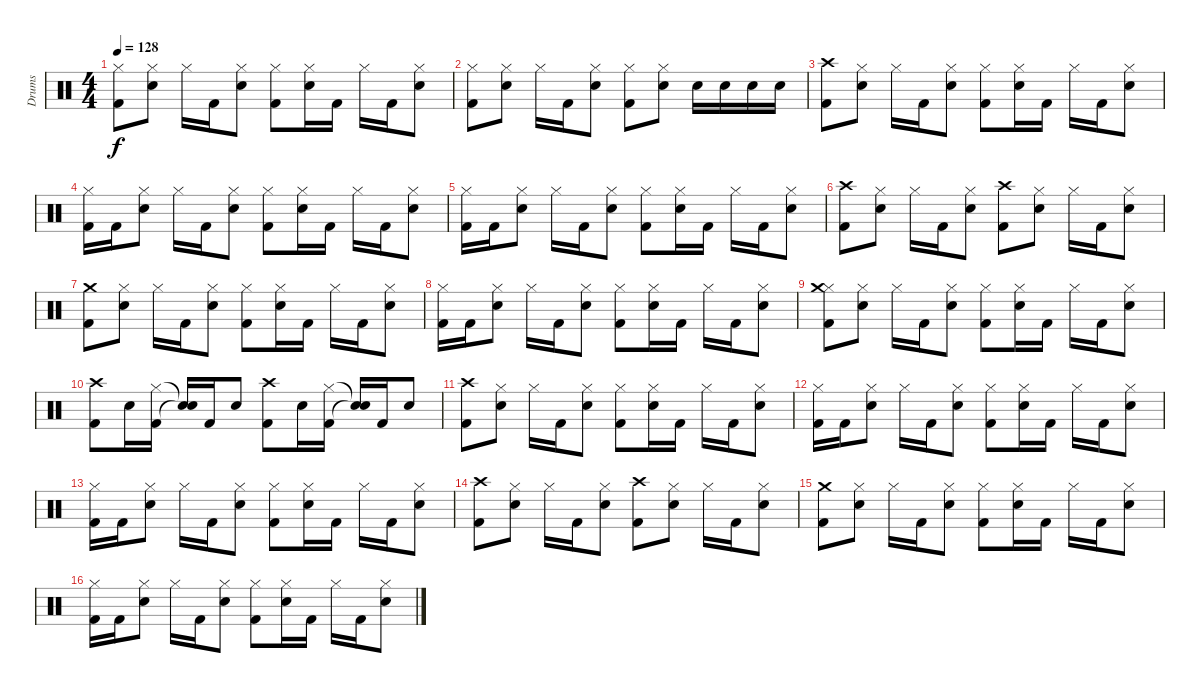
\track ("Drums" "Drums") {instrument percussion}
\staff {score}
\articulation defaults
\ts (4 4)
\tempo 128
\clef neutral
\ks c
("Kick (hit) 2" "Hi-Hat (closed)").8{dy f} ("Snare (hit) 2" "Hi-Hat (closed)").8 "Hi-Hat (closed)".16 "Kick (hit) 2".16 ("Snare (hit) 2" "Hi-Hat (closed)").8 ("Kick (hit) 2" "Hi-Hat (closed)").8 ("Snare (hit) 2" "Hi-Hat (closed)").16 "Kick (hit) 2".16 "Hi-Hat (closed)".16 "Kick (hit) 2".16 ("Snare (hit) 2" "Hi-Hat (closed)").8 |
("Kick (hit) 2" "Hi-Hat (closed)").8 ("Snare (hit) 2" "Hi-Hat (closed)").8 "Hi-Hat (closed)".16 "Kick (hit) 2".16 ("Snare (hit) 2" "Hi-Hat (closed)").8 ("Kick (hit) 2" "Hi-Hat (closed)").8 ("Snare (hit) 2" "Hi-Hat (closed)").8 "Snare (hit) 2".16 "Snare (hit) 2".16 "Snare (hit) 2".16 "Snare (hit) 2".16 |
("Kick (hit) 2" "Crash high (hit)").8 ("Snare (hit) 2" "Hi-Hat (closed)").8 "Hi-Hat (closed)".16 "Kick (hit) 2".16 ("Snare (hit) 2" "Hi-Hat (closed)").8 ("Kick (hit) 2" "Hi-Hat (closed)").8 ("Snare (hit) 2" "Hi-Hat (closed)").16 "Kick (hit) 2".16 "Hi-Hat (closed)".16 "Kick (hit) 2".16 ("Snare (hit) 2" "Hi-Hat (closed)").8 |
("Kick (hit) 2" "Hi-Hat (closed)").16 "Kick (hit) 2".16 ("Snare (hit) 2" "Hi-Hat (closed)").8 "Hi-Hat (closed)".16 "Kick (hit) 2".16 ("Snare (hit) 2" "Hi-Hat (closed)").8 ("Kick (hit) 2" "Hi-Hat (closed)").8 ("Snare (hit) 2" "Hi-Hat (closed)").16 "Kick (hit) 2".16 "Hi-Hat (closed)".16 "Kick (hit) 2".16 ("Snare (hit) 2" "Hi-Hat (closed)").8 |
("Kick (hit) 2" "Hi-Hat (closed)").16 "Kick (hit) 2".16 ("Snare (hit) 2" "Hi-Hat (closed)").8 "Hi-Hat (closed)".16 "Kick (hit) 2".16 ("Snare (hit) 2" "Hi-Hat (closed)").8 ("Kick (hit) 2" "Hi-Hat (closed)").8 ("Snare (hit) 2" "Hi-Hat (closed)").16 "Kick (hit) 2".16 "Hi-Hat (closed)".16 "Kick (hit) 2".16 ("Snare (hit) 2" "Hi-Hat (closed)").8 |
("Kick (hit) 2" "Crash high (hit)").8 ("Snare (hit) 2" "Hi-Hat (closed)").8 "Hi-Hat (closed)".16 "Kick (hit) 2".16 ("Snare (hit) 2" "Hi-Hat (closed)").8 ("Kick (hit) 2" "Crash high (hit)").8 ("Snare (hit) 2" "Hi-Hat (closed)").8 "Hi-Hat (closed)".16 "Kick (hit) 2".16 ("Snare (hit) 2" "Hi-Hat (closed)").8 |
("Kick (hit) 2" "Crash medium (hit)").8 ("Snare (hit) 2" "Hi-Hat (closed)").8 "Hi-Hat (closed)".16 "Kick (hit) 2".16 ("Snare (hit) 2" "Hi-Hat (closed)").8 ("Kick (hit) 2" "Hi-Hat (closed)").8 ("Snare (hit) 2" "Hi-Hat (closed)").16 "Kick (hit) 2".16 "Hi-Hat (closed)".16 "Kick (hit) 2".16 ("Snare (hit) 2" "Hi-Hat (closed)").8 |
("Kick (hit) 2" "Hi-Hat (closed)").16 "Kick (hit) 2".16 ("Snare (hit) 2" "Hi-Hat (closed)").8 "Hi-Hat (closed)".16 "Kick (hit) 2".16 ("Snare (hit) 2" "Hi-Hat (closed)").8 ("Kick (hit) 2" "Hi-Hat (closed)").8 ("Snare (hit) 2" "Hi-Hat (closed)").16 "Kick (hit) 2".16 "Hi-Hat (closed)".16 "Kick (hit) 2".16 ("Snare (hit) 2" "Hi-Hat (closed)").8 |
("Kick (hit) 2" "Hi-Hat (closed)" "Crash medium (hit)").8 ("Snare (hit) 2" "Hi-Hat (closed)").8 "Hi-Hat (closed)".16 "Kick (hit) 2".16 ("Snare (hit) 2" "Hi-Hat (closed)").8 ("Kick (hit) 2" "Hi-Hat (closed)").8 ("Snare (hit) 2" "Hi-Hat (closed)").16 "Kick (hit) 2".16 "Hi-Hat (closed)".16 "Kick (hit) 2".16 ("Snare (hit) 2" "Hi-Hat (closed)").8 |
("Kick (hit) 2" "Crash high (hit)").8 "Snare (hit) 2".16 ("Kick (hit) 2" "Hi-Hat (closed)").16 ("Snare (hit)"{t} "Snare (hit)"{t}).16 "Kick (hit) 2".16 "Snare (hit) 2".8 ("Kick (hit) 2" "Crash high (hit)").8 "Snare (hit) 2".16 ("Kick (hit) 2" "Hi-Hat (closed)").16 ("Snare (hit)"{t} "Snare (hit)"{t}).16 "Kick (hit) 2".16 "Snare (hit) 2".8 |
("Kick (hit) 2" "Crash high (hit)").8 ("Snare (hit) 2" "Hi-Hat (closed)").8 "Hi-Hat (closed)".16 "Kick (hit) 2".16 ("Snare (hit) 2" "Hi-Hat (closed)").8 ("Kick (hit) 2" "Hi-Hat (closed)").8 ("Snare (hit) 2" "Hi-Hat (closed)").16 "Kick (hit) 2".16 "Hi-Hat (closed)".16 "Kick (hit) 2".16 ("Snare (hit) 2" "Hi-Hat (closed)").8 |
("Kick (hit) 2" "Hi-Hat (closed)").16 "Kick (hit) 2".16 ("Snare (hit) 2" "Hi-Hat (closed)").8 "Hi-Hat (closed)".16 "Kick (hit) 2".16 ("Snare (hit) 2" "Hi-Hat (closed)").8 ("Kick (hit) 2" "Hi-Hat (closed)").8 ("Snare (hit) 2" "Hi-Hat (closed)").16 "Kick (hit) 2".16 "Hi-Hat (closed)".16 "Kick (hit) 2".16 ("Snare (hit) 2" "Hi-Hat (closed)").8 |
("Kick (hit) 2" "Hi-Hat (closed)").16 "Kick (hit) 2".16 ("Snare (hit) 2" "Hi-Hat (closed)").8 "Hi-Hat (closed)".16 "Kick (hit) 2".16 ("Snare (hit) 2" "Hi-Hat (closed)").8 ("Kick (hit) 2" "Hi-Hat (closed)").8 ("Snare (hit) 2" "Hi-Hat (closed)").16 "Kick (hit) 2".16 "Hi-Hat (closed)".16 "Kick (hit) 2".16 ("Snare (hit) 2" "Hi-Hat (closed)").8 |
("Kick (hit) 2" "Crash high (hit)").8 ("Snare (hit) 2" "Hi-Hat (closed)").8 "Hi-Hat (closed)".16 "Kick (hit) 2".16 ("Snare (hit) 2" "Hi-Hat (closed)").8 ("Kick (hit) 2" "Crash high (hit)").8 ("Snare (hit) 2" "Hi-Hat (closed)").8 "Hi-Hat (closed)".16 "Kick (hit) 2".16 ("Snare (hit) 2" "Hi-Hat (closed)").8 |
("Kick (hit) 2" "Crash medium (hit)").8 ("Snare (hit) 2" "Hi-Hat (closed)").8 "Hi-Hat (closed)".16 "Kick (hit) 2".16 ("Snare (hit) 2" "Hi-Hat (closed)").8 ("Kick (hit) 2" "Hi-Hat (closed)").8 ("Snare (hit) 2" "Hi-Hat (closed)").16 "Kick (hit) 2".16 "Hi-Hat (closed)".16 "Kick (hit) 2".16 ("Snare (hit) 2" "Hi-Hat (closed)").8 |
("Kick (hit) 2" "Hi-Hat (closed)").16 "Kick (hit) 2".16 ("Snare (hit) 2" "Hi-Hat (closed)").8 "Hi-Hat (closed)".16 "Kick (hit) 2".16 ("Snare (hit) 2" "Hi-Hat (closed)").8 ("Kick (hit) 2" "Hi-Hat (closed)").8 ("Snare (hit) 2" "Hi-Hat (closed)").16 "Kick (hit) 2".16 "Hi-Hat (closed)".16 "Kick (hit) 2".16 ("Snare (hit) 2" "Hi-Hat (closed)").8
